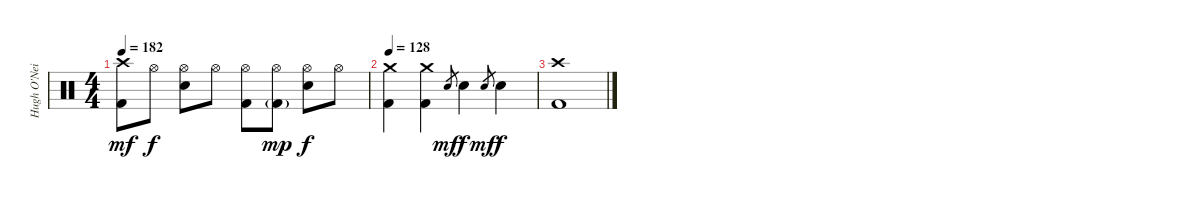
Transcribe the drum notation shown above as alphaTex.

\track ("Hugh O'Neil" "Hugh O'Nei") {instrument percussion}
\staff {score}
\articulation defaults
\ts (4 4)
\tempo 182
\clef neutral
\ks c
("Crash high (hit)" "Kick (hit) 2").8{dy mf} "Hi-Hat (open)".8{dy f} ("Hi-Hat (open)" "Electric Snare (hit)").8 "Hi-Hat (open)".8 ("Hi-Hat (open)" "Kick (hit) 2").8 ("Hi-Hat (open)" "Kick (hit) 2"{g}).8{dy mp} ("Hi-Hat (open)" "Electric Snare (hit)").8{dy f} "Hi-Hat (open)".8 |
\tempo 128
("Crash medium (hit)" "Kick (hit) 2").4 ("Crash medium (hit)" "Kick (hit) 2").4 "Electric Snare (hit)".8{gr dy mf} "Electric Snare (hit)".4{dy f} "Electric Snare (hit)".8{gr dy mf} "Electric Snare (hit)".4{dy f} |
("Crash high (hit)" "Kick (hit) 2").1
